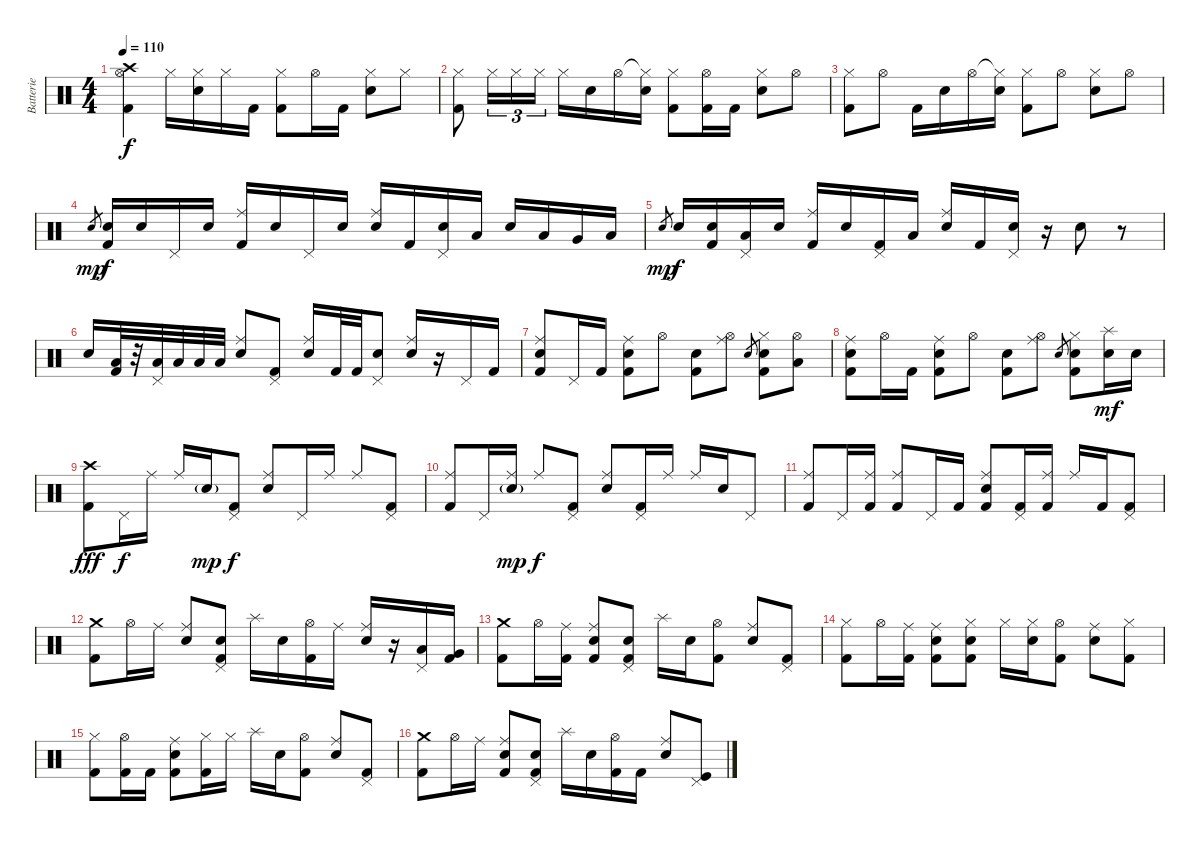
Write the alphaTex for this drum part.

\track ("Batterie" "Batterie") {instrument percussion}
\staff {score}
\articulation defaults
\ts (4 4)
\tempo 110
\clef neutral
\ks c
("Crash high (hit)" "Hi-Hat (open)" "Kick (hit) 2").4{dy f} "Hi-Hat (closed)".16 ("Hi-Hat (closed)" "Snare (hit) 2").16 "Hi-Hat (closed)".16 "Kick (hit) 2".16 ("Hi-Hat (closed)" "Kick (hit) 2").8 "Hi-Hat (open)".16 "Kick (hit) 2".16 ("Hi-Hat (closed)" "Snare (hit) 2").8 "Hi-Hat (closed)".8 |
("Hi-Hat (closed)" "Kick (hit) 2").8 "Hi-Hat (closed)".16{tu (3 2)} "Hi-Hat (closed)".16{tu (3 2)} "Hi-Hat (closed)".16{tu (3 2)} "Hi-Hat (closed)".16 "Snare (hit) 2".16 "Hi-Hat (open)".16 ("Hi-Hat (closed)"{t} "Snare (hit) 2").16 ("Hi-Hat (closed)" "Kick (hit) 2").8 ("Hi-Hat (open)" "Kick (hit) 2").16 "Kick (hit) 2".16 ("Hi-Hat (closed)" "Snare (hit) 2").8 "Hi-Hat (open)".8 |
("Hi-Hat (closed)" "Kick (hit) 2").8 "Hi-Hat (open)".8 "Kick (hit) 2".16 "Snare (hit) 2".16 "Hi-Hat (open)".16 ("Hi-Hat (closed)"{t} "Snare (hit) 2").16 ("Hi-Hat (closed)" "Kick (hit) 2").8 "Hi-Hat (open)".8 ("Hi-Hat (closed)" "Snare (hit) 2").8 "Hi-Hat (open)".8 |
"Snare (hit) 2".8{gr dy mp} ("Snare (hit) 2" "Kick (hit) 2").16{dy f} "Snare (hit) 2".16 "Pedal Hi-Hat (hit)".16 "Snare (hit) 2".16 ("Ride (middle)" "Kick (hit) 2").16 "Snare (hit) 2".16 "Pedal Hi-Hat (hit)".16 "Snare (hit) 2".16 ("Ride (middle)" "Snare (hit) 2").16 "Kick (hit) 2".16 ("Pedal Hi-Hat (hit)" "Snare (hit) 2").16 "Low Tom (hit)".16 "Snare (hit) 2".16 "Low Tom (hit)".16 "Very Low Tom (hit)".16 "Low Floor Tom (hit)".16 |
"Snare (hit) 2".8{gr dy mp} "Snare (hit) 2".16{dy f} ("Snare (hit) 2" "Kick (hit) 2").16 ("Pedal Hi-Hat (hit)" "Low Tom (hit)").16 "Snare (hit) 2".16 ("Ride (middle)" "Kick (hit) 2").16 "Snare (hit) 2".16 ("Pedal Hi-Hat (hit)" "Kick (hit) 2").16 "Low Tom (hit)".16 ("Ride (middle)" "Snare (hit) 2").16 "Kick (hit) 2".16 ("Pedal Hi-Hat (hit)" "Snare (hit) 2").16 r.16 "Snare (hit) 2".8 r.8 |
"Snare (hit) 2".16 ("Low Tom (hit)" "Kick (hit) 2").32 r.32 ("Pedal Hi-Hat (hit)" "Low Tom (hit)").32 "Low Tom (hit)".32 "Low Tom (hit)".32 "Low Tom (hit)".32 ("Ride (middle)" "Snare (hit) 2").8 ("Pedal Hi-Hat (hit)" "Kick (hit) 2").8 ("Ride (middle)" "Snare (hit) 2").16 "Kick (hit) 2".32 "Kick (hit) 2".32 ("Pedal Hi-Hat (hit)" "Snare (hit) 2").8 ("Ride (middle)" "Snare (hit) 2").16 r.16 "Pedal Hi-Hat (hit)".16 "Kick (hit) 2".16 |
("Ride (middle)" "Snare (hit) 2" "Kick (hit) 2").8 "Pedal Hi-Hat (hit)".16 "Kick (hit) 2".16 ("Ride (middle)" "Snare (hit) 2" "Kick (hit) 2").8 "Hi-Hat (open)".8 ("Snare (hit) 2" "Kick (hit) 2").8 ("Ride (middle)" "Hi-Hat (open)").8 "Snare (hit) 2".8{gr} ("Hi-Hat (closed)" "Snare (hit) 2" "Kick (hit) 2").8 ("Hi-Hat (open)" "Low Tom (hit)").8 |
("Ride (middle)" "Snare (hit) 2" "Kick (hit) 2").8 "Hi-Hat (open)".16 "Kick (hit) 2".16 ("Ride (middle)" "Snare (hit) 2" "Kick (hit) 2").8 "Hi-Hat (open)".8 ("Snare (hit) 2" "Kick (hit) 2").8 ("Ride (middle)" "Hi-Hat (open)").8 "Snare (hit) 2".8{gr} ("Hi-Hat (closed)" "Snare (hit) 2" "Kick (hit) 2").8 ("Splash (hit)" "Snare (hit) 2").16{dy mf} "Snare (hit) 2".16 |
("Crash high (hit)" "Kick (hit) 2").8{dy fff} "Pedal Hi-Hat (hit)".16{dy f} "Ride (middle)".16 "Ride (middle)".16 "Snare (hit) 2"{g}.16{dy mp} ("Pedal Hi-Hat (hit)" "Kick (hit) 2").8{dy f} ("Ride (middle)" "Snare (hit) 2").8 "Pedal Hi-Hat (hit)".16 "Ride (middle)".16 "Ride (middle)".8 ("Pedal Hi-Hat (hit)" "Kick (hit) 2").8 |
("Ride (middle)" "Kick (hit) 2").8 "Pedal Hi-Hat (hit)".16 ("Ride (middle)" "Snare (hit) 2"{g}).16{dy mp} "Ride (middle)".8{dy f} ("Pedal Hi-Hat (hit)" "Kick (hit) 2").8 ("Ride (middle)" "Snare (hit) 2").8 ("Pedal Hi-Hat (hit)" "Kick (hit) 2").16 "Ride (middle)".16 "Ride (middle)".16 "Snare (hit) 2".16 "Pedal Hi-Hat (hit)".8 |
("Ride (middle)" "Kick (hit) 2").8 "Pedal Hi-Hat (hit)".16 ("Ride (middle)" "Kick (hit) 2").16 ("Ride (middle)" "Kick (hit) 2").8 "Pedal Hi-Hat (hit)".16 "Kick (hit) 2".16 ("Ride (middle)" "Snare (hit) 2" "Kick (hit) 2").8 ("Pedal Hi-Hat (hit)" "Kick (hit) 2").16 ("Ride (middle)" "Kick (hit) 2").16 "Ride (middle)".16 "Kick (hit) 2".16 ("Pedal Hi-Hat (hit)" "Kick (hit) 2").8 |
("Crash medium (hit)" "Kick (hit) 2").8 "Hi-Hat (open)".16 "Ride (middle)".16 ("Ride (middle)" "Snare (hit) 2").8 ("Pedal Hi-Hat (hit)" "Snare (hit) 2" "Kick (hit) 2").8 "Splash (hit)".16 "Snare (hit) 2".16 ("Hi-Hat (open)" "Kick (hit) 2").16 "Ride (middle)".16 ("Ride (middle)" "Snare (hit) 2").16 r.16 ("Pedal Hi-Hat (hit)" "Low Tom (hit)").16 ("Very Low Tom (hit)" "Kick (hit) 2").16 |
("Crash medium (hit)" "Kick (hit) 2").8 "Hi-Hat (open)".16 ("Ride (middle)" "Kick (hit) 2").16 ("Ride (middle)" "Snare (hit) 2" "Kick (hit) 2").8 ("Pedal Hi-Hat (hit)" "Snare (hit) 2" "Kick (hit) 2").8 "Splash (hit)".16 "Snare (hit) 2".16 ("Hi-Hat (open)" "Kick (hit) 2").8 ("Ride (middle)" "Snare (hit) 2").8 ("Pedal Hi-Hat (hit)" "Kick (hit) 2").8 |
("Hi-Hat (closed)" "Kick (hit) 2").8 "Hi-Hat (open)".16 ("Ride (middle)" "Kick (hit) 2").16 ("Ride (middle)" "Snare (hit) 2" "Kick (hit) 2").8 ("Hi-Hat (closed)" "Snare (hit) 2" "Kick (hit) 2").8 "Hi-Hat (closed)".16 ("Hi-Hat (closed)" "Snare (hit) 2").16 ("Hi-Hat (open)" "Kick (hit) 2").8 ("Ride (middle)" "Snare (hit) 2").8 ("Hi-Hat (closed)" "Kick (hit) 2").8 |
("Hi-Hat (closed)" "Kick (hit) 2").8 ("Hi-Hat (open)" "Kick (hit) 2").16 "Kick (hit) 2".16 ("Ride (middle)" "Snare (hit) 2" "Kick (hit) 2").8 ("Hi-Hat (closed)" "Kick (hit) 2").16 "Hi-Hat (closed)".16 "Splash (hit)".16 "Snare (hit) 2".16 ("Hi-Hat (open)" "Kick (hit) 2").8 ("Ride (middle)" "Snare (hit) 2").8 ("Pedal Hi-Hat (hit)" "Kick (hit) 2").8 |
("Crash medium (hit)" "Kick (hit) 2").8 "Hi-Hat (open)".16 "Ride (middle)".16 ("Ride (middle)" "Snare (hit) 2" "Kick (hit) 2").8 ("Pedal Hi-Hat (hit)" "Snare (hit) 2" "Kick (hit) 2").8 "Splash (hit)".16 "Snare (hit) 2".16 ("Hi-Hat (open)" "Kick (hit) 2").16 "Kick (hit) 2".16 ("Ride (middle)" "Snare (hit) 2").8 ("Pedal Hi-Hat (hit)" "Kick (hit)").8
